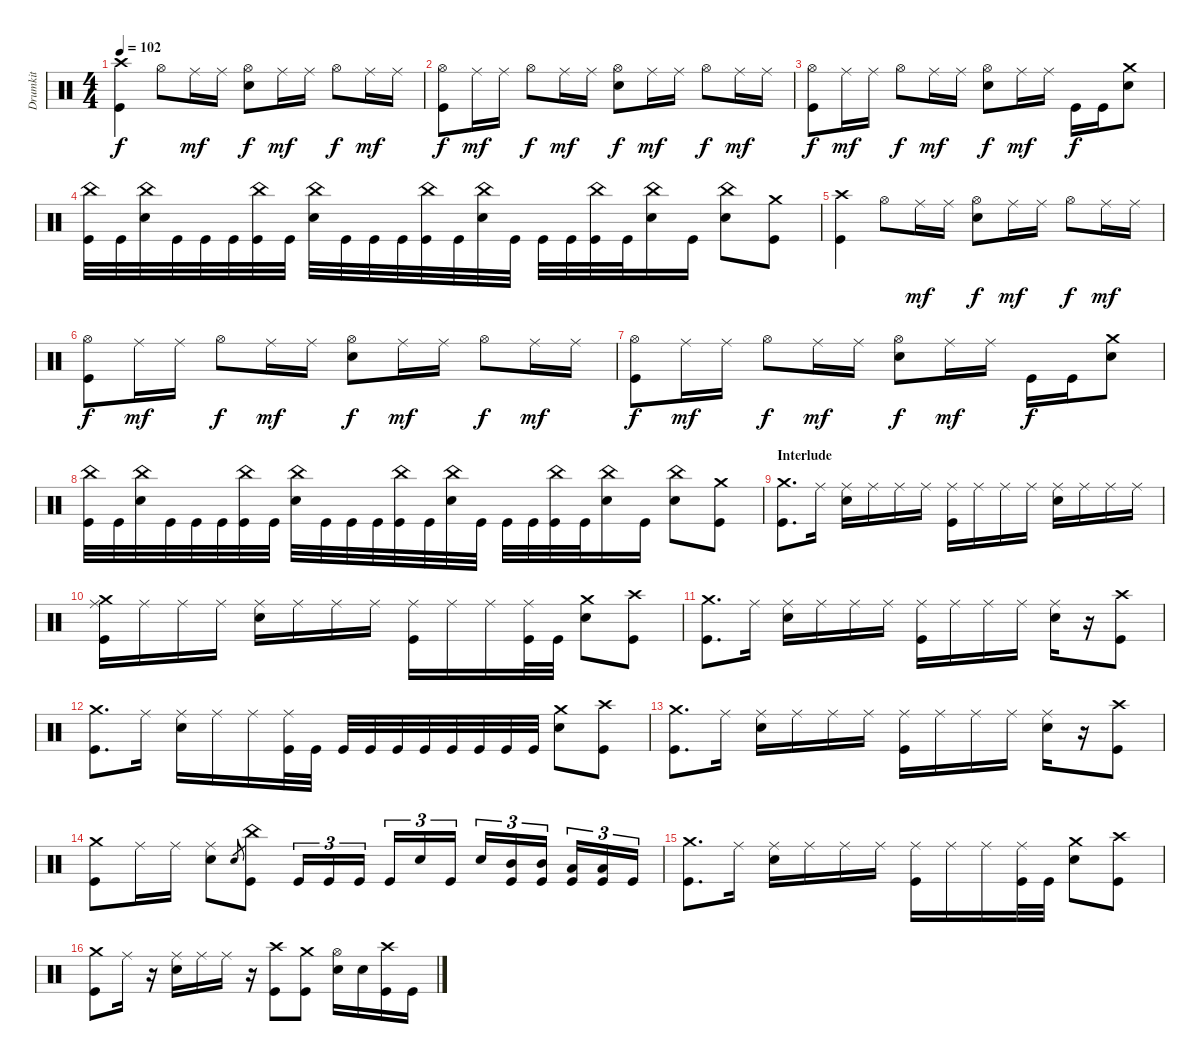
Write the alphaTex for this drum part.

\track ("Drumkit" "Drumkit") {instrument percussion}
\staff {score}
\articulation defaults
\ts (4 4)
\tempo 102
\clef neutral
\ks c
("Kick (hit)" "Crash high (hit)").4{dy f} "Hi-Hat (open)".8 "Ride (middle)".16{dy mf} "Ride (middle)".16 ("Hi-Hat (open)" "Snare (hit) 2").8{dy f} "Ride (middle)".16{dy mf} "Ride (middle)".16 "Hi-Hat (open)".8{dy f} "Ride (middle)".16{dy mf} "Ride (middle)".16 |
("Kick (hit)" "Hi-Hat (open)").8{dy f} "Ride (middle)".16{dy mf} "Ride (middle)".16 "Hi-Hat (open)".8{dy f} "Ride (middle)".16{dy mf} "Ride (middle)".16 ("Hi-Hat (open)" "Snare (hit) 2").8{dy f} "Ride (middle)".16{dy mf} "Ride (middle)".16 "Hi-Hat (open)".8{dy f} "Ride (middle)".16{dy mf} "Ride (middle)".16 |
("Kick (hit)" "Hi-Hat (open)").8{dy f} "Ride (middle)".16{dy mf} "Ride (middle)".16 "Hi-Hat (open)".8{dy f} "Ride (middle)".16{dy mf} "Ride (middle)".16 ("Hi-Hat (open)" "Snare (hit) 2").8{dy f} "Ride (middle)".16{dy mf} "Ride (middle)".16 "Kick (hit)".16{dy f} "Kick (hit)".16 ("Snare (hit) 2" "Crash medium (hit)").8 |
("Kick (hit)" "China (hit)").32 "Kick (hit)".32 ("Snare (hit) 2" "China (hit)").32 "Kick (hit)".32 "Kick (hit)".32 "Kick (hit)".32 ("Kick (hit)" "China (hit)").32 "Kick (hit)".32 ("Snare (hit) 2" "China (hit)").32 "Kick (hit)".32 "Kick (hit)".32 "Kick (hit)".32 ("Kick (hit)" "China (hit)").32 "Kick (hit)".32 ("Snare (hit) 2" "China (hit)").32 "Kick (hit)".32 "Kick (hit)".32 "Kick (hit)".32 ("Kick (hit)" "China (hit)").32 "Kick (hit)".32 ("Snare (hit) 2" "China (hit)").16 "Kick (hit)".16 ("Snare (hit) 2" "China (hit)").8 ("Kick (hit)" "Crash medium (hit)").8 |
("Kick (hit)" "Crash high (hit)").4 "Hi-Hat (open)".8 "Ride (middle)".16{dy mf} "Ride (middle)".16 ("Hi-Hat (open)" "Snare (hit) 2").8{dy f} "Ride (middle)".16{dy mf} "Ride (middle)".16 "Hi-Hat (open)".8{dy f} "Ride (middle)".16{dy mf} "Ride (middle)".16 |
("Kick (hit)" "Hi-Hat (open)").8{dy f} "Ride (middle)".16{dy mf} "Ride (middle)".16 "Hi-Hat (open)".8{dy f} "Ride (middle)".16{dy mf} "Ride (middle)".16 ("Hi-Hat (open)" "Snare (hit) 2").8{dy f} "Ride (middle)".16{dy mf} "Ride (middle)".16 "Hi-Hat (open)".8{dy f} "Ride (middle)".16{dy mf} "Ride (middle)".16 |
("Kick (hit)" "Hi-Hat (open)").8{dy f} "Ride (middle)".16{dy mf} "Ride (middle)".16 "Hi-Hat (open)".8{dy f} "Ride (middle)".16{dy mf} "Ride (middle)".16 ("Hi-Hat (open)" "Snare (hit) 2").8{dy f} "Ride (middle)".16{dy mf} "Ride (middle)".16 "Kick (hit)".16{dy f} "Kick (hit)".16 ("Snare (hit) 2" "Crash medium (hit)").8 |
("Kick (hit)" "China (hit)").32 "Kick (hit)".32 ("Snare (hit) 2" "China (hit)").32 "Kick (hit)".32 "Kick (hit)".32 "Kick (hit)".32 ("Kick (hit)" "China (hit)").32 "Kick (hit)".32 ("Snare (hit) 2" "China (hit)").32 "Kick (hit)".32 "Kick (hit)".32 "Kick (hit)".32 ("Kick (hit)" "China (hit)").32 "Kick (hit)".32 ("Snare (hit) 2" "China (hit)").32 "Kick (hit)".32 "Kick (hit)".32 "Kick (hit)".32 ("Kick (hit)" "China (hit)").32 "Kick (hit)".32 ("Snare (hit) 2" "China (hit)").16 "Kick (hit)".16 ("Snare (hit) 2" "China (hit)").8 ("Kick (hit)" "Crash medium (hit)").8 |
\section ("" "Interlude")
("Kick (hit)" "Crash medium (hit)").8{d} "Ride (middle)".16 ("Snare (hit) 2" "Ride (middle)").16 "Ride (middle)".16 "Ride (middle)".16 "Ride (middle)".16 ("Kick (hit)" "Ride (middle)").16 "Ride (middle)".16 "Ride (middle)".16 "Ride (middle)".16 ("Snare (hit) 2" "Ride (middle)").16 "Ride (middle)".16 "Ride (middle)".16 "Ride (middle)".16 |
("Kick (hit)" "Ride (middle)" "Crash medium (hit)").16 "Ride (middle)".16 "Ride (middle)".16 "Ride (middle)".16 ("Snare (hit) 2" "Ride (middle)").16 "Ride (middle)".16 "Ride (middle)".16 "Ride (middle)".16 ("Kick (hit)" "Ride (middle)").16 "Ride (middle)".16 "Ride (middle)".16 ("Kick (hit)" "Ride (middle)").32 "Kick (hit)".32 ("Snare (hit) 2" "Crash medium (hit)").8 ("Kick (hit)" "Crash high (hit)").8 |
("Kick (hit)" "Crash medium (hit)").8{d} "Ride (middle)".16 ("Snare (hit) 2" "Ride (middle)").16 "Ride (middle)".16 "Ride (middle)".16 "Ride (middle)".16 ("Kick (hit)" "Ride (middle)").16 "Ride (middle)".16 "Ride (middle)".16 "Ride (middle)".16 ("Snare (hit) 2" "Ride (middle)").16 r.16 ("Kick (hit)" "Crash high (hit)").8 |
("Kick (hit)" "Crash medium (hit)").8{d} "Ride (middle)".16 ("Snare (hit) 2" "Ride (middle)").16 "Ride (middle)".16 "Ride (middle)".16 ("Kick (hit)" "Ride (middle)").32 "Kick (hit)".32 "Kick (hit)".32 "Kick (hit)".32 "Kick (hit)".32 "Kick (hit)".32 "Kick (hit)".32 "Kick (hit)".32 "Kick (hit)".32 "Kick (hit)".32 ("Snare (hit) 2" "Crash medium (hit)").8 ("Kick (hit)" "Crash high (hit)").8 |
("Kick (hit)" "Crash medium (hit)").8{d} "Ride (middle)".16 ("Snare (hit) 2" "Ride (middle)").16 "Ride (middle)".16 "Ride (middle)".16 "Ride (middle)".16 ("Kick (hit)" "Ride (middle)").16 "Ride (middle)".16 "Ride (middle)".16 "Ride (middle)".16 ("Snare (hit) 2" "Ride (middle)").16 r.16 ("Kick (hit)" "Crash high (hit)").8 |
("Kick (hit)" "Crash medium (hit)").8 "Ride (middle)".16 "Ride (middle)".16 ("Snare (hit) 2" "Ride (middle)").8 "Snare (hit)".8{gr} ("Kick (hit)" "China (hit)").8 "Kick (hit)".16{tu (3 2)} "Kick (hit)".16{tu (3 2)} "Kick (hit)".16{tu (3 2)} "Kick (hit)".16{tu (3 2)} "Snare (hit) 2".16{tu (3 2)} "Kick (hit)".16{tu (3 2)} "Snare (hit) 2".16{tu (3 2)} ("Kick (hit)" "Mid Tom (hit)").16{tu (3 2)} ("Kick (hit)" "Mid Tom (hit)").16{tu (3 2)} ("Kick (hit)" "Low Tom (hit)").16{tu (3 2)} ("Kick (hit)" "Low Tom (hit)").16{tu (3 2)} "Kick (hit)".16{tu (3 2)} |
("Kick (hit)" "Crash medium (hit)").8{d} "Ride (middle)".16 ("Snare (hit) 2" "Ride (middle)").16 "Ride (middle)".16 "Ride (middle)".16 "Ride (middle)".16 ("Kick (hit)" "Ride (middle)").16 "Ride (middle)".16 "Ride (middle)".16 ("Kick (hit)" "Ride (middle)").32 "Kick (hit)".32 ("Snare (hit) 2" "Crash medium (hit)").8 ("Kick (hit)" "Crash high (hit)").8 |
("Kick (hit)" "Crash medium (hit)").8 "Ride (middle)".16 r.16 ("Snare (hit) 2" "Ride (middle)").16 "Ride (middle)".16 "Ride (middle)".16 r.16 ("Kick (hit)" "Crash high (hit)").8 ("Kick (hit)" "Crash medium (hit)").8 ("Snare (hit) 2" "Hi-Hat (open)").16 "Snare (hit) 2".16 ("Kick (hit)" "Crash high (hit)").16 "Kick (hit)".16
